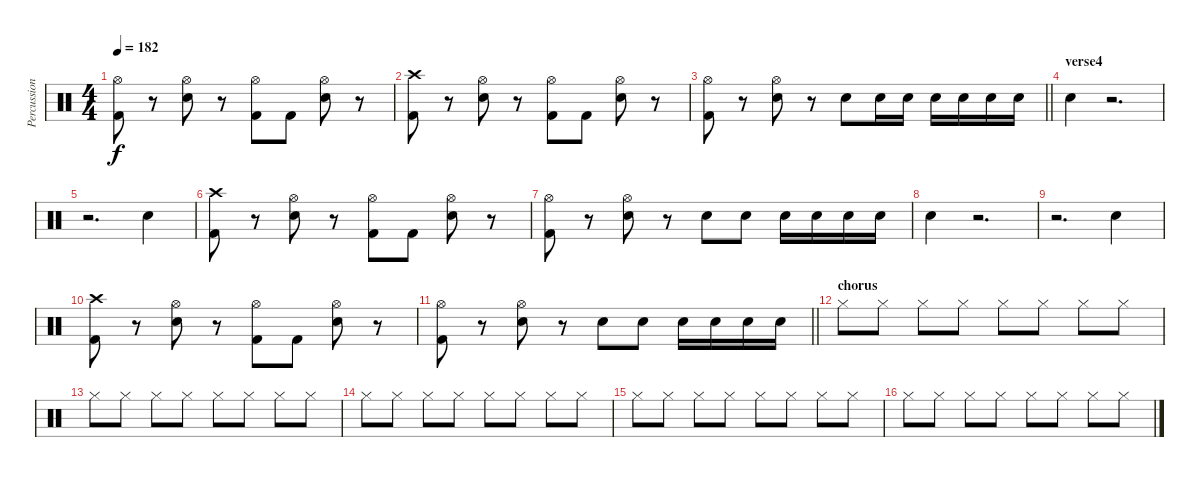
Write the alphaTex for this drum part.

\track ("Percussion" "Percussion") {instrument percussion}
\staff {score}
\articulation defaults
\ts (4 4)
\tempo 182
\clef neutral
\ks c
("Hi-Hat (open)" "Kick (hit) 2").8{dy f} r.8 ("Hi-Hat (open)" "Snare (hit) 2").8 r.8 ("Hi-Hat (open)" "Kick (hit) 2").8 "Kick (hit) 2".8 ("Hi-Hat (open)" "Snare (hit) 2").8 r.8 |
("Crash high (hit)" "Kick (hit) 2").8 r.8 ("Hi-Hat (open)" "Snare (hit) 2").8 r.8 ("Hi-Hat (open)" "Kick (hit) 2").8 "Kick (hit) 2".8 ("Hi-Hat (open)" "Snare (hit) 2").8 r.8 |
\barLineRight lightlight
("Hi-Hat (open)" "Kick (hit) 2").8 r.8 ("Hi-Hat (open)" "Snare (hit) 2").8 r.8 "Snare (hit) 2".8 "Snare (hit) 2".16 "Snare (hit) 2".16 "Snare (hit) 2".16 "Snare (hit) 2".16 "Snare (hit) 2".16 "Snare (hit) 2".16 |
\section ("" "verse4")
"Snare (hit) 2".4 r.2{d} |
r.2{d} "Snare (hit) 2".4 |
("Crash high (hit)" "Kick (hit) 2").8 r.8 ("Hi-Hat (open)" "Snare (hit) 2").8 r.8 ("Hi-Hat (open)" "Kick (hit) 2").8 "Kick (hit) 2".8 ("Hi-Hat (open)" "Snare (hit) 2").8 r.8 |
("Hi-Hat (open)" "Kick (hit) 2").8 r.8 ("Hi-Hat (open)" "Snare (hit) 2").8 r.8 "Snare (hit) 2".8 "Snare (hit) 2".8 "Snare (hit) 2".16 "Snare (hit) 2".16 "Snare (hit) 2".16 "Snare (hit) 2".16 |
"Snare (hit) 2".4 r.2{d} |
r.2{d} "Snare (hit) 2".4 |
("Crash high (hit)" "Kick (hit) 2").8 r.8 ("Hi-Hat (open)" "Snare (hit) 2").8 r.8 ("Hi-Hat (open)" "Kick (hit) 2").8 "Kick (hit) 2".8 ("Hi-Hat (open)" "Snare (hit) 2").8 r.8 |
\barLineRight lightlight
("Hi-Hat (open)" "Kick (hit) 2").8 r.8 ("Hi-Hat (open)" "Snare (hit) 2").8 r.8 "Snare (hit) 2".8 "Snare (hit) 2".8 "Snare (hit) 2".16 "Snare (hit) 2".16 "Snare (hit) 2".16 "Snare (hit) 2".16 |
\section ("" "chorus")
"Hi-Hat (closed)".8 "Hi-Hat (closed)".8 "Hi-Hat (closed)".8 "Hi-Hat (closed)".8 "Hi-Hat (closed)".8 "Hi-Hat (closed)".8 "Hi-Hat (closed)".8 "Hi-Hat (closed)".8 |
"Hi-Hat (closed)".8 "Hi-Hat (closed)".8 "Hi-Hat (closed)".8 "Hi-Hat (closed)".8 "Hi-Hat (closed)".8 "Hi-Hat (closed)".8 "Hi-Hat (closed)".8 "Hi-Hat (closed)".8 |
"Hi-Hat (closed)".8 "Hi-Hat (closed)".8 "Hi-Hat (closed)".8 "Hi-Hat (closed)".8 "Hi-Hat (closed)".8 "Hi-Hat (closed)".8 "Hi-Hat (closed)".8 "Hi-Hat (closed)".8 |
"Hi-Hat (closed)".8 "Hi-Hat (closed)".8 "Hi-Hat (closed)".8 "Hi-Hat (closed)".8 "Hi-Hat (closed)".8 "Hi-Hat (closed)".8 "Hi-Hat (closed)".8 "Hi-Hat (closed)".8 |
"Hi-Hat (closed)".8 "Hi-Hat (closed)".8 "Hi-Hat (closed)".8 "Hi-Hat (closed)".8 "Hi-Hat (closed)".8 "Hi-Hat (closed)".8 "Hi-Hat (closed)".8 "Hi-Hat (closed)".8
